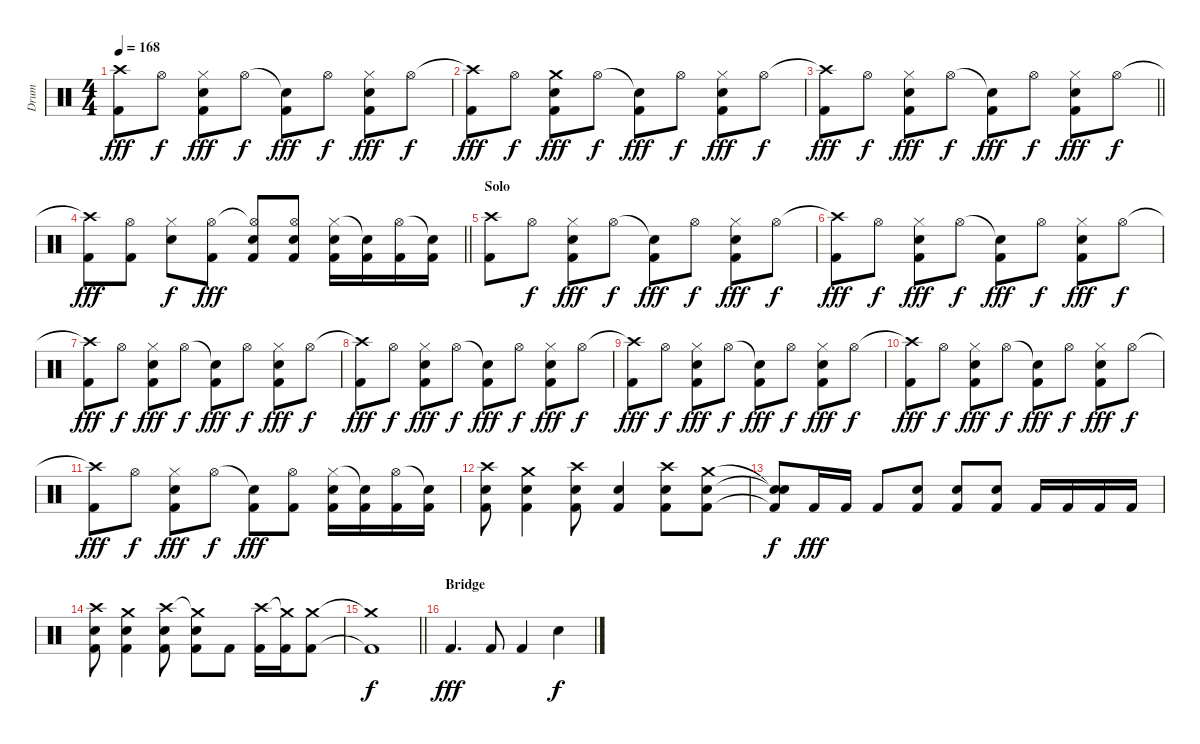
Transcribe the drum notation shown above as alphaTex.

\track ("Drum" "Drum") {instrument percussion}
\staff {score}
\articulation defaults
\ts (4 4)
\tempo 168
\clef neutral
\ks c
("Crash high (hit)" "Kick (hit) 2").8{dy fff} "Hi-Hat (open)".8{dy f} ("Hi-Hat (closed)" "Snare (hit) 2" "Kick (hit) 2").8{dy fff} "Hi-Hat (open)".8{dy f} ("Snare (hit)"{t} "Kick (hit) 2").8{dy fff} "Hi-Hat (open)".8{dy f} ("Hi-Hat (closed)" "Snare (hit) 2" "Kick (hit) 2").8{dy fff} "Hi-Hat (open)".8{dy f} |
("Crash high (hit)"{t} "Kick (hit) 2").8{dy fff} "Hi-Hat (open)".8{dy f} ("Crash medium (hit)" "Snare (hit) 2" "Kick (hit) 2").8{dy fff} "Hi-Hat (open)".8{dy f} ("Snare (hit)"{t} "Kick (hit) 2").8{dy fff} "Hi-Hat (open)".8{dy f} ("Hi-Hat (closed)" "Snare (hit) 2" "Kick (hit) 2").8{dy fff} "Hi-Hat (open)".8{dy f} |
\barLineRight lightlight
("Crash high (hit)"{t} "Kick (hit) 2").8{dy fff} "Hi-Hat (open)".8{dy f} ("Hi-Hat (closed)" "Snare (hit) 2" "Kick (hit) 2").8{dy fff} "Hi-Hat (open)".8{dy f} ("Snare (hit)"{t} "Kick (hit) 2").8{dy fff} "Hi-Hat (open)".8{dy f} ("Hi-Hat (closed)" "Snare (hit) 2" "Kick (hit) 2").8{dy fff} "Hi-Hat (open)".8{dy f} |
\barLineRight lightlight
("Crash high (hit)"{t} "Kick (hit) 2").8{dy fff} ("Hi-Hat (open)" "Kick (hit) 2").8 ("Hi-Hat (closed)" "Snare (hit) 2").8{dy f} ("Hi-Hat (open)" "Kick (hit) 2").8{dy fff} ("Hi-Hat (open)"{t} "Snare (hit) 2" "Kick (hit) 2").8 ("Hi-Hat (open)" "Snare (hit) 2" "Kick (hit) 2").8 ("Hi-Hat (closed)" "Snare (hit) 2" "Kick (hit) 2").16 ("Snare (hit)"{t} "Kick (hit) 2").16 ("Hi-Hat (open)" "Kick (hit) 2").16 ("Snare (hit)"{t} "Kick (hit) 2").16 |
\section ("" "Solo")
("Crash high (hit)" "Kick (hit) 2").8 "Hi-Hat (open)".8{dy f} ("Hi-Hat (closed)" "Snare (hit) 2" "Kick (hit) 2").8{dy fff} "Hi-Hat (open)".8{dy f} ("Snare (hit)"{t} "Kick (hit) 2").8{dy fff} "Hi-Hat (open)".8{dy f} ("Hi-Hat (closed)" "Snare (hit) 2" "Kick (hit) 2").8{dy fff} "Hi-Hat (open)".8{dy f} |
("Crash high (hit)"{t} "Kick (hit) 2").8{dy fff} "Hi-Hat (open)".8{dy f} ("Hi-Hat (closed)" "Snare (hit) 2" "Kick (hit) 2").8{dy fff} "Hi-Hat (open)".8{dy f} ("Snare (hit)"{t} "Kick (hit) 2").8{dy fff} "Hi-Hat (open)".8{dy f} ("Hi-Hat (closed)" "Snare (hit) 2" "Kick (hit) 2").8{dy fff} "Hi-Hat (open)".8{dy f} |
("Crash high (hit)"{t} "Kick (hit) 2").8{dy fff} "Hi-Hat (open)".8{dy f} ("Hi-Hat (closed)" "Snare (hit) 2" "Kick (hit) 2").8{dy fff} "Hi-Hat (open)".8{dy f} ("Snare (hit)"{t} "Kick (hit) 2").8{dy fff} "Hi-Hat (open)".8{dy f} ("Hi-Hat (closed)" "Snare (hit) 2" "Kick (hit) 2").8{dy fff} "Hi-Hat (open)".8{dy f} |
("Crash high (hit)"{t} "Kick (hit) 2").8{dy fff} "Hi-Hat (open)".8{dy f} ("Hi-Hat (closed)" "Snare (hit) 2" "Kick (hit) 2").8{dy fff} "Hi-Hat (open)".8{dy f} ("Snare (hit)"{t} "Kick (hit) 2").8{dy fff} "Hi-Hat (open)".8{dy f} ("Hi-Hat (closed)" "Snare (hit) 2" "Kick (hit) 2").8{dy fff} "Hi-Hat (open)".8{dy f} |
("Crash high (hit)"{t} "Kick (hit) 2").8{dy fff} "Hi-Hat (open)".8{dy f} ("Hi-Hat (closed)" "Snare (hit) 2" "Kick (hit) 2").8{dy fff} "Hi-Hat (open)".8{dy f} ("Snare (hit)"{t} "Kick (hit) 2").8{dy fff} "Hi-Hat (open)".8{dy f} ("Hi-Hat (closed)" "Snare (hit) 2" "Kick (hit) 2").8{dy fff} "Hi-Hat (open)".8{dy f} |
("Crash high (hit)"{t} "Kick (hit) 2").8{dy fff} "Hi-Hat (open)".8{dy f} ("Hi-Hat (closed)" "Snare (hit) 2" "Kick (hit) 2").8{dy fff} "Hi-Hat (open)".8{dy f} ("Snare (hit)"{t} "Kick (hit) 2").8{dy fff} "Hi-Hat (open)".8{dy f} ("Hi-Hat (closed)" "Snare (hit) 2" "Kick (hit) 2").8{dy fff} "Hi-Hat (open)".8{dy f} |
("Crash high (hit)"{t} "Kick (hit) 2").8{dy fff} "Hi-Hat (open)".8{dy f} ("Hi-Hat (closed)" "Snare (hit) 2" "Kick (hit) 2").8{dy fff} "Hi-Hat (open)".8{dy f} ("Snare (hit)"{t} "Kick (hit) 2").8{dy fff} ("Hi-Hat (open)" "Kick (hit) 2").8 ("Hi-Hat (closed)" "Snare (hit) 2" "Kick (hit) 2").16 ("Snare (hit)"{t} "Kick (hit) 2").16 ("Hi-Hat (open)" "Kick (hit) 2").16 ("Snare (hit)"{t} "Kick (hit) 2").16 |
("Crash high (hit)" "Snare (hit) 2" "Kick (hit) 2").8 ("Crash medium (hit)" "Snare (hit) 2" "Kick (hit) 2").4 ("Crash high (hit)" "Snare (hit) 2" "Kick (hit) 2").8 ("Snare (hit) 2" "Kick (hit) 2").4 ("Crash high (hit)" "Snare (hit) 2" "Kick (hit) 2").8 ("Crash medium (hit)" "Snare (hit) 2" "Kick (hit) 2").8 |
("Snare (hit)"{t} "Snare (hit)"{t} "Kick (hit) 2"{t}).8{dy f} "Kick (hit) 2".16{dy fff} "Kick (hit) 2".16 "Kick (hit) 2".8 ("Snare (hit) 2" "Kick (hit) 2").8 ("Snare (hit) 2" "Kick (hit) 2").8 ("Snare (hit) 2" "Kick (hit) 2").8 "Kick (hit) 2".16 "Kick (hit) 2".16 "Kick (hit) 2".16 "Kick (hit) 2".16 |
("Crash high (hit)" "Snare (hit) 2" "Kick (hit) 2").8 ("Crash medium (hit)" "Snare (hit) 2" "Kick (hit) 2").4 ("Crash high (hit)" "Snare (hit) 2" "Kick (hit) 2").8 ("Crash medium (hit)"{t} "Snare (hit) 2" "Kick (hit) 2").8 "Kick (hit) 2".8 ("Crash high (hit)" "Kick (hit) 2").16 ("Crash medium (hit)"{t} "Kick (hit) 2").16 ("Crash medium (hit)" "Kick (hit) 2").8 |
\barLineRight lightlight
("Crash medium (hit)"{t} "Kick (hit) 2"{t}).1{dy f} |
\section ("" "Bridge")
"Kick (hit) 2".4{d dy fff} "Kick (hit) 2".8 "Kick (hit) 2".4 "Snare (hit) 2".4{dy f}
